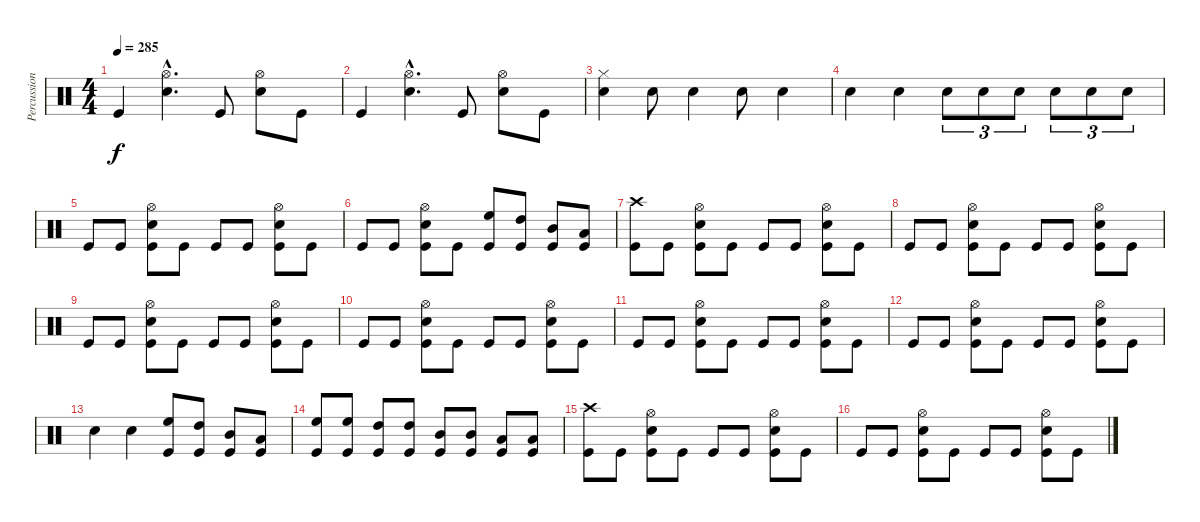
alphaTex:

\track ("Percussion" "Percussion") {instrument percussion}
\staff {score}
\articulation defaults
\ts (4 4)
\tempo 285
\clef neutral
\ks c "Kick (hit)".4{dy f}
("Snare (hit) 2"{hac} "Hi-Hat (open)"{hac}).4{d} "Kick (hit)".8 ("Snare (hit) 2" "Hi-Hat (open)").8 "Kick (hit)".8 |
"Kick (hit)".4 ("Snare (hit) 2"{hac} "Hi-Hat (open)"{hac}).4{d} "Kick (hit)".8 ("Snare (hit) 2" "Hi-Hat (open)").8 "Kick (hit)".8 |
("Snare (hit) 2" "Hi-Hat (closed)").4 "Snare (hit) 2".8 "Snare (hit) 2".4 "Snare (hit) 2".8 "Snare (hit) 2".4 |
"Snare (hit) 2".4 "Snare (hit) 2".4 "Snare (hit) 2".8{tu (3 2)} "Snare (hit) 2".8{tu (3 2)} "Snare (hit) 2".8{tu (3 2)} "Snare (hit) 2".8{tu (3 2)} "Snare (hit) 2".8{tu (3 2)} "Snare (hit) 2".8{tu (3 2)} |
"Kick (hit)".8 "Kick (hit)".8 ("Snare (hit) 2" "Hi-Hat (open)" "Kick (hit)").8 "Kick (hit)".8 "Kick (hit)".8 "Kick (hit)".8 ("Snare (hit) 2" "Hi-Hat (open)" "Kick (hit)").8 "Kick (hit)".8 |
"Kick (hit)".8 "Kick (hit)".8 ("Snare (hit) 2" "Hi-Hat (open)" "Kick (hit)").8 "Kick (hit)".8 ("High Floor Tom (hit)" "Kick (hit)").8 ("High Tom (hit)" "Kick (hit)").8 ("Mid Tom (hit)" "Kick (hit)").8 ("Low Tom (hit)" "Kick (hit)").8 |
("Crash high (hit)" "Kick (hit)").8 "Kick (hit)".8 ("Snare (hit) 2" "Hi-Hat (open)" "Kick (hit)").8 "Kick (hit)".8 "Kick (hit)".8 "Kick (hit)".8 ("Snare (hit) 2" "Hi-Hat (open)" "Kick (hit)").8 "Kick (hit)".8 |
"Kick (hit)".8 "Kick (hit)".8 ("Snare (hit) 2" "Hi-Hat (open)" "Kick (hit)").8 "Kick (hit)".8 "Kick (hit)".8 "Kick (hit)".8 ("Snare (hit) 2" "Hi-Hat (open)" "Kick (hit)").8 "Kick (hit)".8 |
"Kick (hit)".8 "Kick (hit)".8 ("Snare (hit) 2" "Hi-Hat (open)" "Kick (hit)").8 "Kick (hit)".8 "Kick (hit)".8 "Kick (hit)".8 ("Snare (hit) 2" "Hi-Hat (open)" "Kick (hit)").8 "Kick (hit)".8 |
"Kick (hit)".8 "Kick (hit)".8 ("Snare (hit) 2" "Hi-Hat (open)" "Kick (hit)").8 "Kick (hit)".8 "Kick (hit)".8 "Kick (hit)".8 ("Snare (hit) 2" "Hi-Hat (open)" "Kick (hit)").8 "Kick (hit)".8 |
"Kick (hit)".8 "Kick (hit)".8 ("Snare (hit) 2" "Hi-Hat (open)" "Kick (hit)").8 "Kick (hit)".8 "Kick (hit)".8 "Kick (hit)".8 ("Snare (hit) 2" "Hi-Hat (open)" "Kick (hit)").8 "Kick (hit)".8 |
"Kick (hit)".8 "Kick (hit)".8 ("Snare (hit) 2" "Hi-Hat (open)" "Kick (hit)").8 "Kick (hit)".8 "Kick (hit)".8 "Kick (hit)".8 ("Snare (hit) 2" "Hi-Hat (open)" "Kick (hit)").8 "Kick (hit)".8 |
"Snare (hit) 2".4 "Snare (hit) 2".4 ("High Floor Tom (hit)" "Kick (hit)").8 ("High Tom (hit)" "Kick (hit)").8 ("Mid Tom (hit)" "Kick (hit)").8 ("Low Tom (hit)" "Kick (hit)").8 |
("High Floor Tom (hit)" "Kick (hit)").8 ("High Floor Tom (hit)" "Kick (hit)").8 ("High Tom (hit)" "Kick (hit)").8 ("High Tom (hit)" "Kick (hit)").8 ("Mid Tom (hit)" "Kick (hit)").8 ("Mid Tom (hit)" "Kick (hit)").8 ("Low Tom (hit)" "Kick (hit)").8 ("Low Tom (hit)" "Kick (hit)").8 |
("Crash high (hit)" "Kick (hit)").8 "Kick (hit)".8 ("Snare (hit) 2" "Hi-Hat (open)" "Kick (hit)").8 "Kick (hit)".8 "Kick (hit)".8 "Kick (hit)".8 ("Snare (hit) 2" "Hi-Hat (open)" "Kick (hit)").8 "Kick (hit)".8 |
"Kick (hit)".8 "Kick (hit)".8 ("Snare (hit) 2" "Hi-Hat (open)" "Kick (hit)").8 "Kick (hit)".8 "Kick (hit)".8 "Kick (hit)".8 ("Snare (hit) 2" "Hi-Hat (open)" "Kick (hit)").8 "Kick (hit)".8
